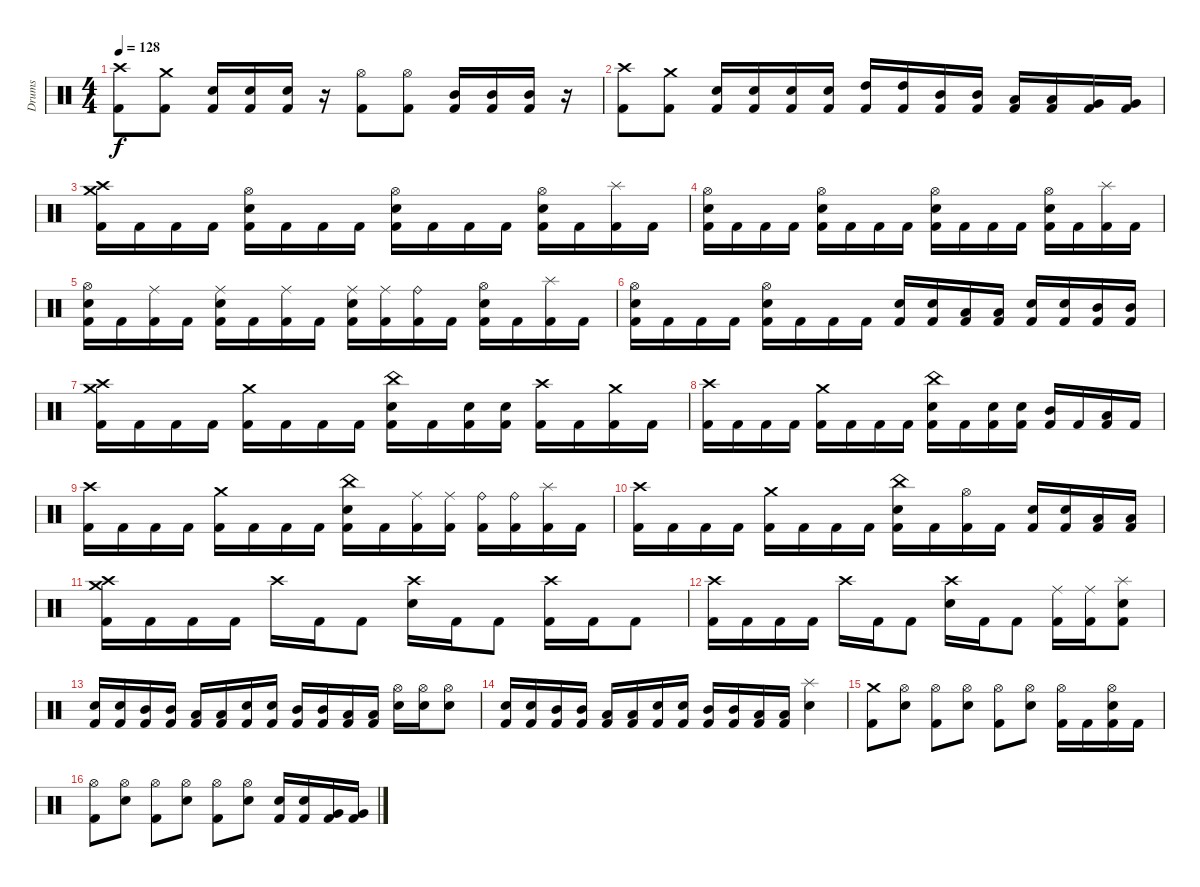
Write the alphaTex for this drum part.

\track ("Drums" "Drums") {solo instrument percussion}
\staff {score}
\articulation defaults
\ts (4 4)
\tempo 128
\clef neutral
\ks c
("Crash high (hit)" "Kick (hit) 2").8{dy f} ("Crash medium (hit)" "Kick (hit) 2").8 ("Electric Snare (hit)" "Kick (hit) 2").16 ("Electric Snare (hit)" "Kick (hit) 2").16 ("Electric Snare (hit)" "Kick (hit) 2").16 r.16 ("Hi-Hat (open)" "Kick (hit) 2").8 ("Hi-Hat (open)" "Kick (hit) 2").8 ("Mid Tom (hit)" "Kick (hit) 2").16 ("Mid Tom (hit)" "Kick (hit) 2").16 ("Mid Tom (hit)" "Kick (hit) 2").16 r.16 |
("Crash high (hit)" "Kick (hit) 2").8 ("Crash medium (hit)" "Kick (hit) 2").8 ("Electric Snare (hit)" "Kick (hit) 2").16 ("Electric Snare (hit)" "Kick (hit) 2").16 ("Electric Snare (hit)" "Kick (hit) 2").16 ("Electric Snare (hit)" "Kick (hit) 2").16 ("High Tom (hit)" "Kick (hit) 2").16 ("High Tom (hit)" "Kick (hit) 2").16 ("Mid Tom (hit)" "Kick (hit) 2").16 ("Mid Tom (hit)" "Kick (hit) 2").16 ("Low Tom (hit)" "Kick (hit) 2").16 ("Low Tom (hit)" "Kick (hit) 2").16 ("Very Low Tom (hit)" "Kick (hit) 2").16 ("Very Low Tom (hit)" "Kick (hit) 2").16 |
("Crash high (hit)" "Crash medium (hit)" "Kick (hit) 2").16 "Kick (hit) 2".16 "Kick (hit) 2".16 "Kick (hit) 2".16 ("Hi-Hat (open)" "Electric Snare (hit)" "Kick (hit) 2").16 "Kick (hit) 2".16 "Kick (hit) 2".16 "Kick (hit) 2".16 ("Hi-Hat (open)" "Electric Snare (hit)" "Kick (hit) 2").16 "Kick (hit) 2".16 "Kick (hit) 2".16 "Kick (hit) 2".16 ("Hi-Hat (open)" "Electric Snare (hit)" "Kick (hit) 2").16 "Kick (hit) 2".16 ("Splash (hit)" "Kick (hit) 2").16 "Kick (hit) 2".16 |
("Hi-Hat (open)" "Electric Snare (hit)" "Kick (hit) 2").16 "Kick (hit) 2".16 "Kick (hit) 2".16 "Kick (hit) 2".16 ("Hi-Hat (open)" "Electric Snare (hit)" "Kick (hit) 2").16 "Kick (hit) 2".16 "Kick (hit) 2".16 "Kick (hit) 2".16 ("Hi-Hat (open)" "Electric Snare (hit)" "Kick (hit) 2").16 "Kick (hit) 2".16 "Kick (hit) 2".16 "Kick (hit) 2".16 ("Hi-Hat (open)" "Electric Snare (hit)" "Kick (hit) 2").16 "Kick (hit) 2".16 ("Splash (hit)" "Kick (hit) 2").16 "Kick (hit) 2".16 |
("Hi-Hat (open)" "Electric Snare (hit)" "Kick (hit) 2").16 "Kick (hit) 2".16 ("Ride (middle)" "Kick (hit) 2").16 "Kick (hit) 2".16 ("Ride (middle)" "Electric Snare (hit)" "Kick (hit) 2").16 "Kick (hit) 2".16 ("Ride (middle)" "Kick (hit) 2").16 "Kick (hit) 2".16 ("Ride (middle)" "Electric Snare (hit)" "Kick (hit) 2").16 ("Ride (middle)" "Kick (hit) 2").16 ("Ride (bell)" "Kick (hit) 2").16 "Kick (hit) 2".16 ("Hi-Hat (open)" "Electric Snare (hit)" "Kick (hit) 2").16 "Kick (hit) 2".16 ("Splash (hit)" "Kick (hit) 2").16 "Kick (hit) 2".16 |
("Hi-Hat (open)" "Electric Snare (hit)" "Kick (hit) 2").16 "Kick (hit) 2".16 "Kick (hit) 2".16 "Kick (hit) 2".16 ("Hi-Hat (open)" "Electric Snare (hit)" "Kick (hit) 2").16 "Kick (hit) 2".16 "Kick (hit) 2".16 "Kick (hit) 2".16 ("Electric Snare (hit)" "Kick (hit) 2").16 ("Electric Snare (hit)" "Kick (hit) 2").16 ("Low Tom (hit)" "Kick (hit) 2").16 ("Low Tom (hit)" "Kick (hit) 2").16 ("Electric Snare (hit)" "Kick (hit) 2").16 ("Electric Snare (hit)" "Kick (hit) 2").16 ("Mid Tom (hit)" "Kick (hit) 2").16 ("Mid Tom (hit)" "Kick (hit) 2").16 |
("Crash high (hit)" "Crash medium (hit)" "Kick (hit) 2").16 "Kick (hit) 2".16 "Kick (hit) 2".16 "Kick (hit) 2".16 ("Crash medium (hit)" "Kick (hit) 2").16 "Kick (hit) 2".16 "Kick (hit) 2".16 "Kick (hit) 2".16 ("China (hit)" "Electric Snare (hit)" "Kick (hit) 2").16 "Kick (hit) 2".16 ("Electric Snare (hit)" "Kick (hit) 2").16 ("Electric Snare (hit)" "Kick (hit) 2").16 ("Crash high (hit)" "Kick (hit) 2").16 "Kick (hit) 2".16 ("Crash medium (hit)" "Kick (hit) 2").16 "Kick (hit) 2".16 |
("Crash high (hit)" "Kick (hit) 2").16 "Kick (hit) 2".16 "Kick (hit) 2".16 "Kick (hit) 2".16 ("Crash medium (hit)" "Kick (hit) 2").16 "Kick (hit) 2".16 "Kick (hit) 2".16 "Kick (hit) 2".16 ("China (hit)" "Electric Snare (hit)" "Kick (hit) 2").16 "Kick (hit) 2".16 ("Electric Snare (hit)" "Kick (hit) 2").16 ("Electric Snare (hit)" "Kick (hit) 2").16 ("Mid Tom (hit)" "Kick (hit) 2").16 "Kick (hit) 2".16 ("Low Tom (hit)" "Kick (hit) 2").16 "Kick (hit) 2".16 |
("Crash high (hit)" "Kick (hit) 2").16 "Kick (hit) 2".16 "Kick (hit) 2".16 "Kick (hit) 2".16 ("Crash medium (hit)" "Kick (hit) 2").16 "Kick (hit) 2".16 "Kick (hit) 2".16 "Kick (hit) 2".16 ("China (hit)" "Electric Snare (hit)" "Kick (hit) 2").16 "Kick (hit) 2".16 ("Ride (middle)" "Kick (hit) 2").16 ("Ride (middle)" "Kick (hit) 2").16 ("Ride (bell)" "Kick (hit) 2").16 ("Ride (bell)" "Kick (hit) 2").16 ("Splash (hit)" "Kick (hit) 2").16 "Kick (hit) 2".16 |
("Crash high (hit)" "Kick (hit) 2").16 "Kick (hit) 2".16 "Kick (hit) 2".16 "Kick (hit) 2".16 ("Crash medium (hit)" "Kick (hit) 2").16 "Kick (hit) 2".16 "Kick (hit) 2".16 "Kick (hit) 2".16 ("China (hit)" "Electric Snare (hit)" "Kick (hit) 2").16 "Kick (hit) 2".16 ("Hi-Hat (open)" "Kick (hit) 2").16 "Kick (hit) 2".16 ("Electric Snare (hit)" "Kick (hit) 2").16 ("Electric Snare (hit)" "Kick (hit) 2").16 ("Low Tom (hit)" "Kick (hit) 2").16 ("Low Tom (hit)" "Kick (hit) 2").16 |
("Crash high (hit)" "Crash medium (hit)" "Kick (hit) 2").16 "Kick (hit) 2".16 "Kick (hit) 2".16 "Kick (hit) 2".16 "Crash high (hit)".16 "Kick (hit) 2".16 "Kick (hit) 2".8 ("Crash high (hit)" "Electric Snare (hit)").16 "Kick (hit) 2".16 "Kick (hit) 2".8 ("Crash high (hit)" "Kick (hit) 2").16 "Kick (hit) 2".16 "Kick (hit) 2".8 |
("Crash high (hit)" "Kick (hit) 2").16 "Kick (hit) 2".16 "Kick (hit) 2".16 "Kick (hit) 2".16 "Crash high (hit)".16 "Kick (hit) 2".16 "Kick (hit) 2".8 ("Crash high (hit)" "Electric Snare (hit)").16 "Kick (hit) 2".16 "Kick (hit) 2".8 ("Ride (middle)" "Kick (hit) 2").16 ("Ride (middle)" "Kick (hit) 2").16 ("Splash (hit)" "Electric Snare (hit)" "Kick (hit) 2").8 |
("Electric Snare (hit)" "Kick (hit) 2").16 ("Electric Snare (hit)" "Kick (hit) 2").16 ("Mid Tom (hit)" "Kick (hit) 2").16 ("Mid Tom (hit)" "Kick (hit) 2").16 ("Low Tom (hit)" "Kick (hit) 2").16 ("Low Tom (hit)" "Kick (hit) 2").16 ("Electric Snare (hit)" "Kick (hit) 2").16 ("Electric Snare (hit)" "Kick (hit) 2").16 ("Mid Tom (hit)" "Kick (hit) 2").16 ("Mid Tom (hit)" "Kick (hit) 2").16 ("Low Tom (hit)" "Kick (hit) 2").16 ("Low Tom (hit)" "Kick (hit) 2").16 ("Hi-Hat (open)" "Electric Snare (hit)").16 ("Hi-Hat (open)" "Electric Snare (hit)").16 ("Hi-Hat (open)" "Electric Snare (hit)").8 |
("Electric Snare (hit)" "Kick (hit) 2").16 ("Electric Snare (hit)" "Kick (hit) 2").16 ("Mid Tom (hit)" "Kick (hit) 2").16 ("Mid Tom (hit)" "Kick (hit) 2").16 ("Low Tom (hit)" "Kick (hit) 2").16 ("Low Tom (hit)" "Kick (hit) 2").16 ("Electric Snare (hit)" "Kick (hit) 2").16 ("Electric Snare (hit)" "Kick (hit) 2").16 ("Mid Tom (hit)" "Kick (hit) 2").16 ("Mid Tom (hit)" "Kick (hit) 2").16 ("Low Tom (hit)" "Kick (hit) 2").16 ("Low Tom (hit)" "Kick (hit) 2").16 ("Splash (hit)" "Electric Snare (hit)").4 |
("Crash medium (hit)" "Kick (hit) 2").8 ("Hi-Hat (open)" "Electric Snare (hit)").8 ("Hi-Hat (open)" "Kick (hit) 2").8 ("Hi-Hat (open)" "Electric Snare (hit)").8 ("Hi-Hat (open)" "Kick (hit) 2").8 ("Hi-Hat (open)" "Electric Snare (hit)").8 ("Hi-Hat (open)" "Kick (hit) 2").16 "Kick (hit) 2".16 ("Hi-Hat (open)" "Electric Snare (hit)" "Kick (hit) 2").16 "Kick (hit) 2".16 |
("Hi-Hat (open)" "Kick (hit) 2").8 ("Hi-Hat (open)" "Electric Snare (hit)").8 ("Hi-Hat (open)" "Kick (hit) 2").8 ("Hi-Hat (open)" "Electric Snare (hit)").8 ("Hi-Hat (open)" "Kick (hit) 2").8 ("Hi-Hat (open)" "Electric Snare (hit)").8 ("Electric Snare (hit)" "Kick (hit) 2").16 ("Electric Snare (hit)" "Kick (hit) 2").16 ("Very Low Tom (hit)" "Kick (hit) 2").16 ("Very Low Tom (hit)" "Kick (hit) 2").16
